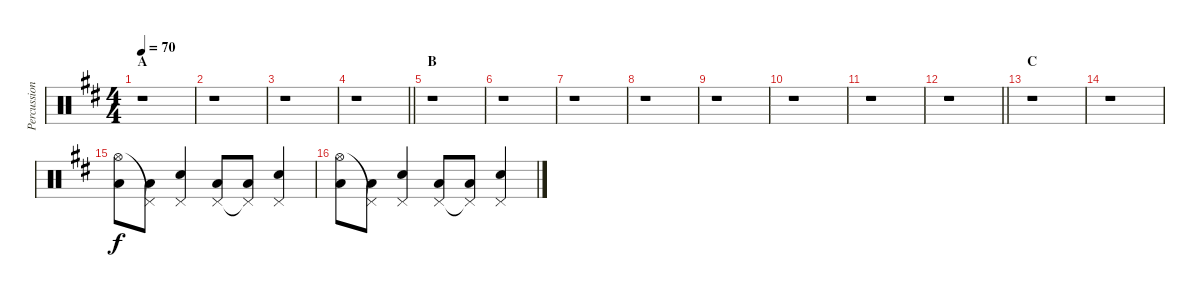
\track ("Percussions" "Percussion") {instrument percussion}
\staff {score}
\articulation defaults
\ts (4 4)
\section ("" "A")
\tempo 70
\clef neutral
\ks d
r.1{dy f} |
r.1 |
r.1 |
\barLineRight lightlight
r.1 |
\section ("" "B")
r.1 |
r.1 |
r.1 |
r.1 |
r.1 |
r.1 |
r.1 |
\barLineRight lightlight
r.1 |
\section ("" "C")
r.1 |
r.1 |
("Hi-Hat (open)" "Low Floor Tom (hit)").8 ("Pedal Hi-Hat (hit)"{t} "Low Floor Tom (hit)").8 ("Pedal Hi-Hat (hit)" "Electric Snare (hit)").4 ("Pedal Hi-Hat (hit)" "Low Floor Tom (hit)").8 ("Pedal Hi-Hat (hit)"{t} "Low Floor Tom (hit)").8 ("Pedal Hi-Hat (hit)" "Electric Snare (hit)").4 |
("Hi-Hat (open)" "Low Floor Tom (hit)").8 ("Pedal Hi-Hat (hit)"{t} "Low Floor Tom (hit)").8 ("Pedal Hi-Hat (hit)" "Electric Snare (hit)").4 ("Pedal Hi-Hat (hit)" "Low Floor Tom (hit)").8 ("Pedal Hi-Hat (hit)"{t} "Low Floor Tom (hit)").8 ("Pedal Hi-Hat (hit)" "Electric Snare (hit)").4
